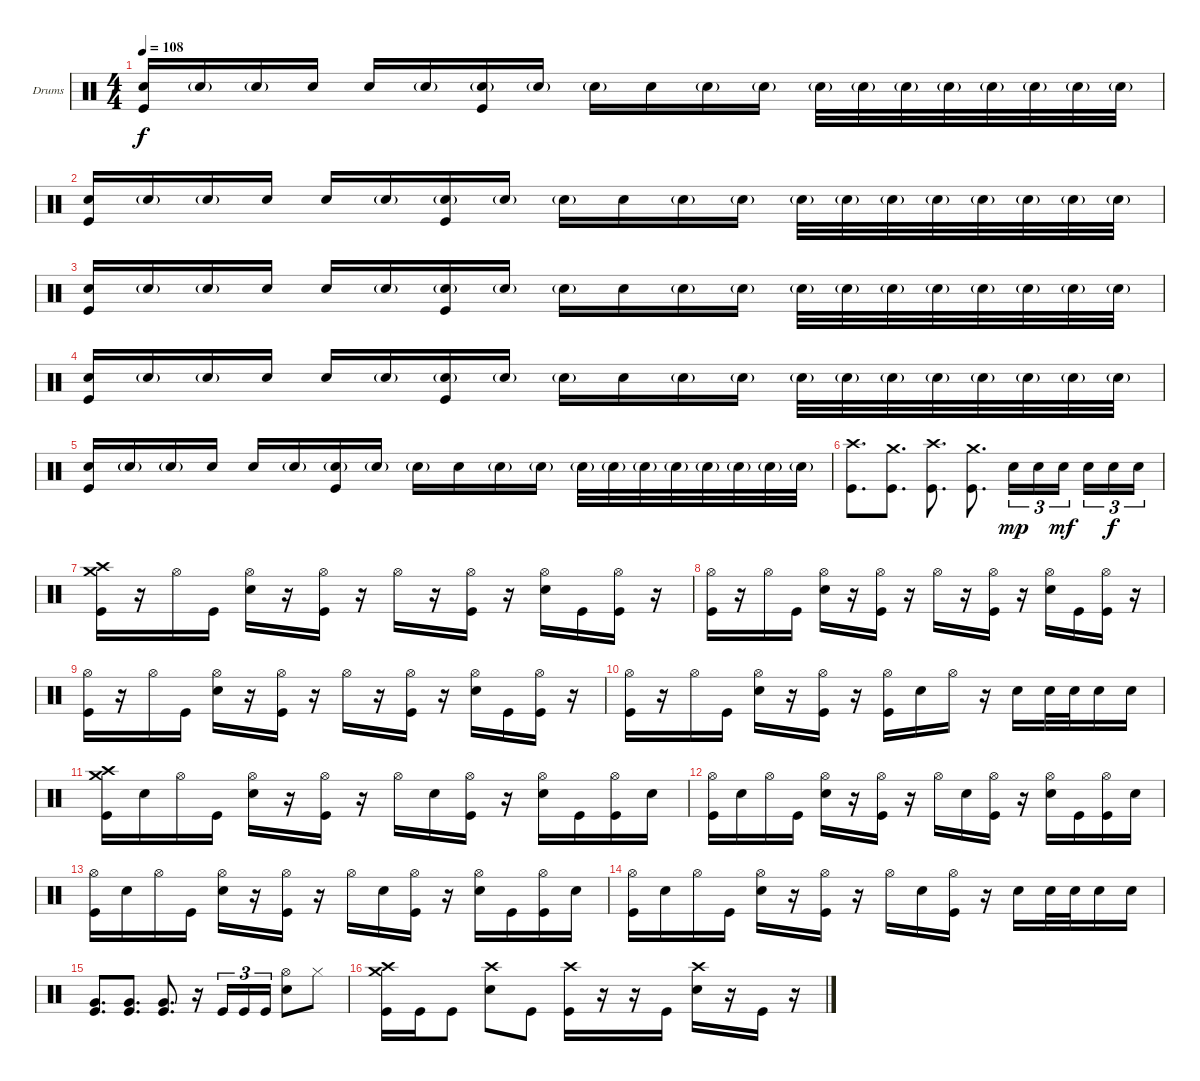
\defaultSystemsLayout 4
\bracketExtendMode groupsimilarinstruments
\firstSystemTrackNameOrientation horizontal
\otherSystemsTrackNameOrientation horizontal
\track ("Drumkit" "Drums") {instrument percussion}
\staff {score}
\articulation defaults
\ts (4 4)
\tempo 108
\clef neutral
\ks c
("Snare (hit) 2" "Kick (hit)").16{dy f} "Snare (hit) 2"{g}.16 "Snare (hit) 2"{g}.16 "Snare (hit) 2".16 "Snare (hit) 2".16 "Snare (hit) 2"{g}.16 ("Snare (hit) 2"{g} "Kick (hit)").16 "Snare (hit) 2"{g}.16 "Snare (hit) 2"{g}.16 "Snare (hit) 2".16 "Snare (hit) 2"{g}.16 "Snare (hit) 2"{g}.16 "Snare (hit) 2"{g}.32 "Snare (hit) 2"{g}.32 "Snare (hit) 2"{g}.32 "Snare (hit) 2"{g}.32 "Snare (hit) 2"{g}.32 "Snare (hit) 2"{g}.32 "Snare (hit) 2"{g}.32 "Snare (hit) 2"{g}.32 |
("Snare (hit) 2" "Kick (hit)").16 "Snare (hit) 2"{g}.16 "Snare (hit) 2"{g}.16 "Snare (hit) 2".16 "Snare (hit) 2".16 "Snare (hit) 2"{g}.16 ("Snare (hit) 2"{g} "Kick (hit)").16 "Snare (hit) 2"{g}.16 "Snare (hit) 2"{g}.16 "Snare (hit) 2".16 "Snare (hit) 2"{g}.16 "Snare (hit) 2"{g}.16 "Snare (hit) 2"{g}.32 "Snare (hit) 2"{g}.32 "Snare (hit) 2"{g}.32 "Snare (hit) 2"{g}.32 "Snare (hit) 2"{g}.32 "Snare (hit) 2"{g}.32 "Snare (hit) 2"{g}.32 "Snare (hit) 2"{g}.32 |
("Snare (hit) 2" "Kick (hit)").16 "Snare (hit) 2"{g}.16 "Snare (hit) 2"{g}.16 "Snare (hit) 2".16 "Snare (hit) 2".16 "Snare (hit) 2"{g}.16 ("Snare (hit) 2"{g} "Kick (hit)").16 "Snare (hit) 2"{g}.16 "Snare (hit) 2"{g}.16 "Snare (hit) 2".16 "Snare (hit) 2"{g}.16 "Snare (hit) 2"{g}.16 "Snare (hit) 2"{g}.32 "Snare (hit) 2"{g}.32 "Snare (hit) 2"{g}.32 "Snare (hit) 2"{g}.32 "Snare (hit) 2"{g}.32 "Snare (hit) 2"{g}.32 "Snare (hit) 2"{g}.32 "Snare (hit) 2"{g}.32 |
("Snare (hit) 2" "Kick (hit)").16 "Snare (hit) 2"{g}.16 "Snare (hit) 2"{g}.16 "Snare (hit) 2".16 "Snare (hit) 2".16 "Snare (hit) 2"{g}.16 ("Snare (hit) 2"{g} "Kick (hit)").16 "Snare (hit) 2"{g}.16 "Snare (hit) 2"{g}.16 "Snare (hit) 2".16 "Snare (hit) 2"{g}.16 "Snare (hit) 2"{g}.16 "Snare (hit) 2"{g}.32 "Snare (hit) 2"{g}.32 "Snare (hit) 2"{g}.32 "Snare (hit) 2"{g}.32 "Snare (hit) 2"{g}.32 "Snare (hit) 2"{g}.32 "Snare (hit) 2"{g}.32 "Snare (hit) 2"{g}.32 |
("Snare (hit) 2" "Kick (hit)").16 "Snare (hit) 2"{g}.16 "Snare (hit) 2"{g}.16 "Snare (hit) 2".16 "Snare (hit) 2".16 "Snare (hit) 2"{g}.16 ("Snare (hit) 2"{g} "Kick (hit)").16 "Snare (hit) 2"{g}.16 "Snare (hit) 2"{g}.16 "Snare (hit) 2".16 "Snare (hit) 2"{g}.16 "Snare (hit) 2"{g}.16 "Snare (hit) 2"{g}.32 "Snare (hit) 2"{g}.32 "Snare (hit) 2"{g}.32 "Snare (hit) 2"{g}.32 "Snare (hit) 2"{g}.32 "Snare (hit) 2"{g}.32 "Snare (hit) 2"{g}.32 "Snare (hit) 2"{g}.32 |
("Kick (hit)" "Crash high (hit)").8{d} ("Kick (hit)" "Crash medium (hit)").8{d} ("Kick (hit)" "Crash high (hit)").8{d} ("Kick (hit)" "Crash medium (hit)").8{d} "Snare (hit) 2".16{tu (3 2) dy mp} "Snare (hit) 2".16{tu (3 2)} "Snare (hit) 2".16{tu (3 2) dy mf} "Snare (hit) 2".16{tu (3 2)} "Snare (hit) 2".16{tu (3 2) dy f} "Snare (hit) 2".16{tu (3 2)} |
("Crash medium (hit)" "Crash high (hit)" "Kick (hit)").16 r.16 "Hi-Hat (open)".16 "Kick (hit)".16 ("Hi-Hat (open)" "Snare (hit) 2").16 r.16 ("Hi-Hat (open)" "Kick (hit)").16 r.16 "Hi-Hat (open)".16 r.16 ("Hi-Hat (open)" "Kick (hit)").16 r.16 ("Hi-Hat (open)" "Snare (hit) 2").16 "Kick (hit)".16 ("Hi-Hat (open)" "Kick (hit)").16 r.16 |
("Kick (hit)" "Hi-Hat (open)").16 r.16 "Hi-Hat (open)".16 "Kick (hit)".16 ("Hi-Hat (open)" "Snare (hit) 2").16 r.16 ("Hi-Hat (open)" "Kick (hit)").16 r.16 "Hi-Hat (open)".16 r.16 ("Hi-Hat (open)" "Kick (hit)").16 r.16 ("Hi-Hat (open)" "Snare (hit) 2").16 "Kick (hit)".16 ("Hi-Hat (open)" "Kick (hit)").16 r.16 |
("Kick (hit)" "Hi-Hat (open)").16 r.16 "Hi-Hat (open)".16 "Kick (hit)".16 ("Hi-Hat (open)" "Snare (hit) 2").16 r.16 ("Hi-Hat (open)" "Kick (hit)").16 r.16 "Hi-Hat (open)".16 r.16 ("Hi-Hat (open)" "Kick (hit)").16 r.16 ("Hi-Hat (open)" "Snare (hit) 2").16 "Kick (hit)".16 ("Hi-Hat (open)" "Kick (hit)").16 r.16 |
("Kick (hit)" "Hi-Hat (open)").16 r.16 "Hi-Hat (open)".16 "Kick (hit)".16 ("Hi-Hat (open)" "Snare (hit) 2").16 r.16 ("Hi-Hat (open)" "Kick (hit)").16 r.16 ("Kick (hit)" "Hi-Hat (open)").16 "Snare (hit) 2".16 "Hi-Hat (open)".16 r.16 "Snare (hit) 2".16 "Snare (hit) 2".32 "Snare (hit) 2".32 "Snare (hit) 2".16 "Snare (hit) 2".16 |
("Crash medium (hit)" "Crash high (hit)" "Kick (hit)").16 "Snare (hit) 2".16 "Hi-Hat (open)".16 "Kick (hit)".16 ("Hi-Hat (open)" "Snare (hit) 2").16 r.16 ("Hi-Hat (open)" "Kick (hit)").16 r.16 "Hi-Hat (open)".16 "Snare (hit) 2".16 ("Hi-Hat (open)" "Kick (hit)").16 r.16 ("Hi-Hat (open)" "Snare (hit) 2").16 "Kick (hit)".16 ("Hi-Hat (open)" "Kick (hit)").16 "Snare (hit) 2".16 |
("Kick (hit)" "Hi-Hat (open)").16 "Snare (hit) 2".16 "Hi-Hat (open)".16 "Kick (hit)".16 ("Hi-Hat (open)" "Snare (hit) 2").16 r.16 ("Hi-Hat (open)" "Kick (hit)").16 r.16 "Hi-Hat (open)".16 "Snare (hit) 2".16 ("Hi-Hat (open)" "Kick (hit)").16 r.16 ("Hi-Hat (open)" "Snare (hit) 2").16 "Kick (hit)".16 ("Hi-Hat (open)" "Kick (hit)").16 "Snare (hit) 2".16 |
("Kick (hit)" "Hi-Hat (open)").16 "Snare (hit) 2".16 "Hi-Hat (open)".16 "Kick (hit)".16 ("Hi-Hat (open)" "Snare (hit) 2").16 r.16 ("Hi-Hat (open)" "Kick (hit)").16 r.16 "Hi-Hat (open)".16 "Snare (hit) 2".16 ("Hi-Hat (open)" "Kick (hit)").16 r.16 ("Hi-Hat (open)" "Snare (hit) 2").16 "Kick (hit)".16 ("Hi-Hat (open)" "Kick (hit)").16 "Snare (hit) 2".16 |
("Kick (hit)" "Hi-Hat (open)").16 "Snare (hit) 2".16 "Hi-Hat (open)".16 "Kick (hit)".16 ("Hi-Hat (open)" "Snare (hit) 2").16 r.16 ("Hi-Hat (open)" "Kick (hit)").16 r.16 "Hi-Hat (open)".16 "Snare (hit) 2".16 ("Hi-Hat (open)" "Kick (hit)").16 r.16 "Snare (hit) 2".16 "Snare (hit) 2".32 "Snare (hit) 2".32 "Snare (hit) 2".16 "Snare (hit) 2".16 |
("Kick (hit)" "Very Low Tom (hit)").8{d} ("Kick (hit)" "Very Low Tom (hit)").8{d} ("Kick (hit)" "Very Low Tom (hit)").8{d} r.16 "Kick (hit)".16{tu (3 2)} "Kick (hit)".16{tu (3 2)} "Kick (hit)".16{tu (3 2)} ("Snare (hit) 2" "Hi-Hat (open)").8 "Hi-Hat (closed)".8 |
("Kick (hit)" "Crash high (hit)" "Crash medium (hit)").16 "Kick (hit)".16 "Kick (hit)".8 ("Snare (hit) 2" "Crash high (hit)").8 "Kick (hit)".8 ("Kick (hit)" "Crash high (hit)").16 r.16 r.16 "Kick (hit)".16 ("Snare (hit) 2" "Crash high (hit)").16 r.16 "Kick (hit)".16 r.16
